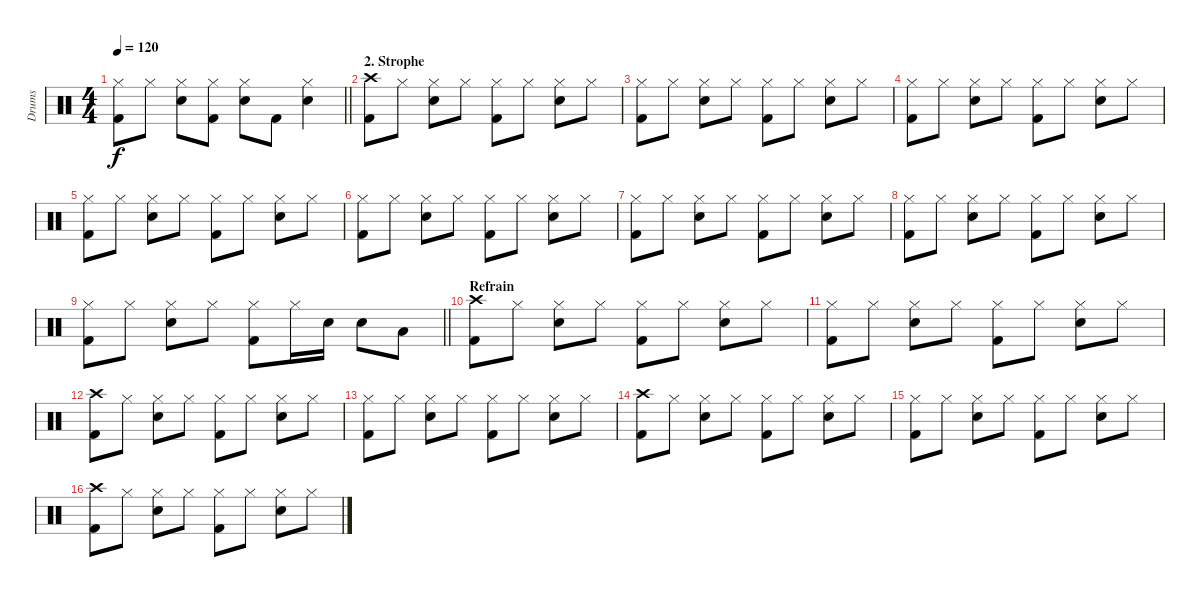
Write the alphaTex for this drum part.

\track ("Drums" "Drums") {instrument percussion}
\staff {score}
\articulation defaults
\ts (4 4)
\tempo 120
\clef neutral
\barLineRight lightlight
\ks c
("Hi-Hat (closed)" "Kick (hit) 2").8{dy f} "Hi-Hat (closed)".8 ("Hi-Hat (closed)" "Snare (hit) 2").8 ("Hi-Hat (closed)" "Kick (hit) 2").8 ("Hi-Hat (closed)" "Snare (hit) 2").8 "Kick (hit) 2".8 ("Hi-Hat (closed)" "Snare (hit) 2").4 |
\section ("" "2. Strophe")
("Crash high (hit)" "Kick (hit) 2").8 "Hi-Hat (closed)".8 ("Hi-Hat (closed)" "Snare (hit) 2").8 "Hi-Hat (closed)".8 ("Hi-Hat (closed)" "Kick (hit) 2").8 "Hi-Hat (closed)".8 ("Hi-Hat (closed)" "Snare (hit) 2").8 "Hi-Hat (closed)".8 |
("Hi-Hat (closed)" "Kick (hit) 2").8 "Hi-Hat (closed)".8 ("Hi-Hat (closed)" "Snare (hit) 2").8 "Hi-Hat (closed)".8 ("Hi-Hat (closed)" "Kick (hit) 2").8 "Hi-Hat (closed)".8 ("Hi-Hat (closed)" "Snare (hit) 2").8 "Hi-Hat (closed)".8 |
("Hi-Hat (closed)" "Kick (hit) 2").8 "Hi-Hat (closed)".8 ("Hi-Hat (closed)" "Snare (hit) 2").8 "Hi-Hat (closed)".8 ("Hi-Hat (closed)" "Kick (hit) 2").8 "Hi-Hat (closed)".8 ("Hi-Hat (closed)" "Snare (hit) 2").8 "Hi-Hat (closed)".8 |
("Hi-Hat (closed)" "Kick (hit) 2").8 "Hi-Hat (closed)".8 ("Hi-Hat (closed)" "Snare (hit) 2").8 "Hi-Hat (closed)".8 ("Hi-Hat (closed)" "Kick (hit) 2").8 "Hi-Hat (closed)".8 ("Hi-Hat (closed)" "Snare (hit) 2").8 "Hi-Hat (closed)".8 |
("Hi-Hat (closed)" "Kick (hit) 2").8 "Hi-Hat (closed)".8 ("Hi-Hat (closed)" "Snare (hit) 2").8 "Hi-Hat (closed)".8 ("Hi-Hat (closed)" "Kick (hit) 2").8 "Hi-Hat (closed)".8 ("Hi-Hat (closed)" "Snare (hit) 2").8 "Hi-Hat (closed)".8 |
("Hi-Hat (closed)" "Kick (hit) 2").8 "Hi-Hat (closed)".8 ("Hi-Hat (closed)" "Snare (hit) 2").8 "Hi-Hat (closed)".8 ("Hi-Hat (closed)" "Kick (hit) 2").8 "Hi-Hat (closed)".8 ("Hi-Hat (closed)" "Snare (hit) 2").8 "Hi-Hat (closed)".8 |
("Hi-Hat (closed)" "Kick (hit) 2").8 "Hi-Hat (closed)".8 ("Hi-Hat (closed)" "Snare (hit) 2").8 "Hi-Hat (closed)".8 ("Hi-Hat (closed)" "Kick (hit) 2").8 "Hi-Hat (closed)".8 ("Hi-Hat (closed)" "Snare (hit) 2").8 "Hi-Hat (closed)".8 |
\barLineRight lightlight
("Hi-Hat (closed)" "Kick (hit) 2").8 "Hi-Hat (closed)".8 ("Hi-Hat (closed)" "Snare (hit) 2").8 "Hi-Hat (closed)".8 ("Hi-Hat (closed)" "Kick (hit) 2").8 "Hi-Hat (closed)".16 "Snare (hit) 2".16 "Snare (hit) 2".8 "Low Tom (hit)".8 |
\section ("" "Refrain")
("Crash high (hit)" "Kick (hit) 2").8 "Hi-Hat (closed)".8 ("Hi-Hat (closed)" "Snare (hit) 2").8 "Hi-Hat (closed)".8 ("Hi-Hat (closed)" "Kick (hit) 2").8 "Hi-Hat (closed)".8 ("Hi-Hat (closed)" "Snare (hit) 2").8 "Hi-Hat (closed)".8 |
("Hi-Hat (closed)" "Kick (hit) 2").8 "Hi-Hat (closed)".8 ("Hi-Hat (closed)" "Snare (hit) 2").8 "Hi-Hat (closed)".8 ("Hi-Hat (closed)" "Kick (hit) 2").8 "Hi-Hat (closed)".8 ("Hi-Hat (closed)" "Snare (hit) 2").8 "Hi-Hat (closed)".8 |
("Crash high (hit)" "Kick (hit) 2").8 "Hi-Hat (closed)".8 ("Hi-Hat (closed)" "Snare (hit) 2").8 "Hi-Hat (closed)".8 ("Hi-Hat (closed)" "Kick (hit) 2").8 "Hi-Hat (closed)".8 ("Hi-Hat (closed)" "Snare (hit) 2").8 "Hi-Hat (closed)".8 |
("Hi-Hat (closed)" "Kick (hit) 2").8 "Hi-Hat (closed)".8 ("Hi-Hat (closed)" "Snare (hit) 2").8 "Hi-Hat (closed)".8 ("Hi-Hat (closed)" "Kick (hit) 2").8 "Hi-Hat (closed)".8 ("Hi-Hat (closed)" "Snare (hit) 2").8 "Hi-Hat (closed)".8 |
("Crash high (hit)" "Kick (hit) 2").8 "Hi-Hat (closed)".8 ("Hi-Hat (closed)" "Snare (hit) 2").8 "Hi-Hat (closed)".8 ("Hi-Hat (closed)" "Kick (hit) 2").8 "Hi-Hat (closed)".8 ("Hi-Hat (closed)" "Snare (hit) 2").8 "Hi-Hat (closed)".8 |
("Hi-Hat (closed)" "Kick (hit) 2").8 "Hi-Hat (closed)".8 ("Hi-Hat (closed)" "Snare (hit) 2").8 "Hi-Hat (closed)".8 ("Hi-Hat (closed)" "Kick (hit) 2").8 "Hi-Hat (closed)".8 ("Hi-Hat (closed)" "Snare (hit) 2").8 "Hi-Hat (closed)".8 |
("Crash high (hit)" "Kick (hit) 2").8 "Hi-Hat (closed)".8 ("Hi-Hat (closed)" "Snare (hit) 2").8 "Hi-Hat (closed)".8 ("Hi-Hat (closed)" "Kick (hit) 2").8 "Hi-Hat (closed)".8 ("Hi-Hat (closed)" "Snare (hit) 2").8 "Hi-Hat (closed)".8
